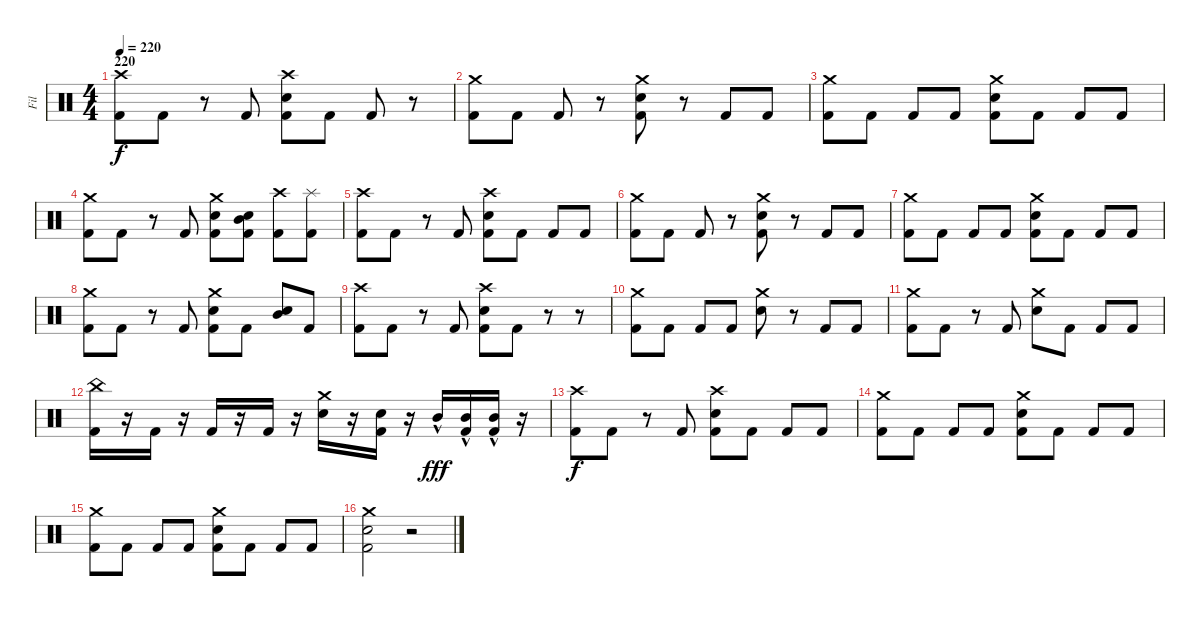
\track ("Fil" "Fil") {instrument percussion}
\staff {score}
\articulation defaults
\ts (4 4)
\section ("" "220")
\tempo 220
\clef neutral
\ks c
("Crash high (hit)" "Kick (hit) 2").8{dy f} "Kick (hit) 2".8 r.8 "Kick (hit) 2".8 ("Crash high (hit)" "Electric Snare (hit)" "Kick (hit) 2").8 "Kick (hit) 2".8 "Kick (hit) 2".8 r.8 |
("Crash medium (hit)" "Kick (hit) 2").8 "Kick (hit) 2".8 "Kick (hit) 2".8 r.8 ("Crash medium (hit)" "Electric Snare (hit)" "Kick (hit) 2").8 r.8 "Kick (hit) 2".8 "Kick (hit) 2".8 |
("Crash medium (hit)" "Kick (hit) 2").8 "Kick (hit) 2".8 "Kick (hit) 2".8 "Kick (hit) 2".8 ("Crash medium (hit)" "Electric Snare (hit)" "Kick (hit) 2").8 "Kick (hit) 2".8 "Kick (hit) 2".8 "Kick (hit) 2".8 |
("Crash medium (hit)" "Kick (hit) 2").8 "Kick (hit) 2".8 r.8 "Kick (hit) 2".8 ("Crash medium (hit)" "Electric Snare (hit)" "Kick (hit) 2").8 ("Mid Tom (hit)" "Electric Snare (hit)" "Kick (hit) 2").8 ("Crash high (hit)" "Kick (hit) 2").8 ("Splash (hit)" "Kick (hit) 2").8 |
("Crash high (hit)" "Kick (hit) 2").8 "Kick (hit) 2".8 r.8 "Kick (hit) 2".8 ("Crash high (hit)" "Electric Snare (hit)" "Kick (hit) 2").8 "Kick (hit) 2".8 "Kick (hit) 2".8 "Kick (hit) 2".8 |
("Crash medium (hit)" "Kick (hit) 2").8 "Kick (hit) 2".8 "Kick (hit) 2".8 r.8 ("Crash medium (hit)" "Electric Snare (hit)" "Kick (hit) 2").8 r.8 "Kick (hit) 2".8 "Kick (hit) 2".8 |
("Crash medium (hit)" "Kick (hit) 2").8 "Kick (hit) 2".8 "Kick (hit) 2".8 "Kick (hit) 2".8 ("Crash medium (hit)" "Electric Snare (hit)" "Kick (hit) 2").8 "Kick (hit) 2".8 "Kick (hit) 2".8 "Kick (hit) 2".8 |
("Crash medium (hit)" "Kick (hit) 2").8 "Kick (hit) 2".8 r.8 "Kick (hit) 2".8 ("Crash medium (hit)" "Electric Snare (hit)" "Kick (hit) 2").8 "Kick (hit) 2".8 ("Mid Tom (hit)" "Electric Snare (hit)").8 "Kick (hit) 2".8 |
("Crash high (hit)" "Kick (hit) 2").8 "Kick (hit) 2".8 r.8 "Kick (hit) 2".8 ("Crash high (hit)" "Electric Snare (hit)" "Kick (hit) 2").8 "Kick (hit) 2".8 r.8 r.8 |
("Crash medium (hit)" "Kick (hit) 2").8 "Kick (hit) 2".8 "Kick (hit) 2".8 "Kick (hit) 2".8 ("Crash medium (hit)" "Electric Snare (hit)").8 r.8 "Kick (hit) 2".8 "Kick (hit) 2".8 |
("Crash medium (hit)" "Kick (hit) 2").8 "Kick (hit) 2".8 r.8 "Kick (hit) 2".8 ("Crash medium (hit)" "Electric Snare (hit)").8 "Kick (hit) 2".8 "Kick (hit) 2".8 "Kick (hit) 2".8 |
("China (hit)" "Kick (hit) 2").16 r.16 "Kick (hit) 2".16 r.16 "Kick (hit) 2".16 r.16 "Kick (hit) 2".16 r.16 ("Crash medium (hit)" "Electric Snare (hit)").16 r.16 ("Electric Snare (hit)" "Kick (hit) 2").16 r.16 "Mid Tom (hit)"{hac}.16{dy fff} ("Mid Tom (hit)"{hac} "Kick (hit) 2").16 ("Mid Tom (hit)"{hac} "Kick (hit) 2").16 r.16 |
("Crash high (hit)" "Kick (hit) 2").8{dy f} "Kick (hit) 2".8 r.8 "Kick (hit) 2".8 ("Crash high (hit)" "Electric Snare (hit)" "Kick (hit) 2").8 "Kick (hit) 2".8 "Kick (hit) 2".8 "Kick (hit) 2".8 |
("Crash medium (hit)" "Kick (hit) 2").8 "Kick (hit) 2".8 "Kick (hit) 2".8 "Kick (hit) 2".8 ("Crash medium (hit)" "Electric Snare (hit)" "Kick (hit) 2").8 "Kick (hit) 2".8 "Kick (hit) 2".8 "Kick (hit) 2".8 |
("Crash medium (hit)" "Kick (hit) 2").8 "Kick (hit) 2".8 "Kick (hit) 2".8 "Kick (hit) 2".8 ("Crash medium (hit)" "Electric Snare (hit)" "Kick (hit) 2").8 "Kick (hit) 2".8 "Kick (hit) 2".8 "Kick (hit) 2".8 |
("Crash medium (hit)" "Electric Snare (hit)" "Kick (hit) 2").2 r.2
